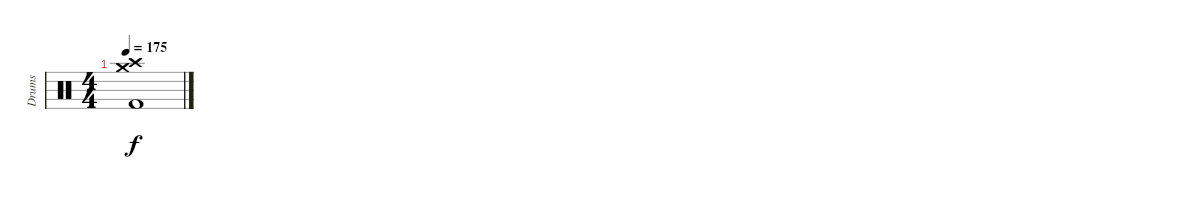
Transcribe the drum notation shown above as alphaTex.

\track ("Drums" "Drums") {instrument percussion}
\staff {score}
\articulation defaults
\ts (4 4)
\tempo 175
\clef neutral
\ks c
("Crash medium (hit)" "Crash high (hit)" "Kick (hit) 2").1{dy f}
